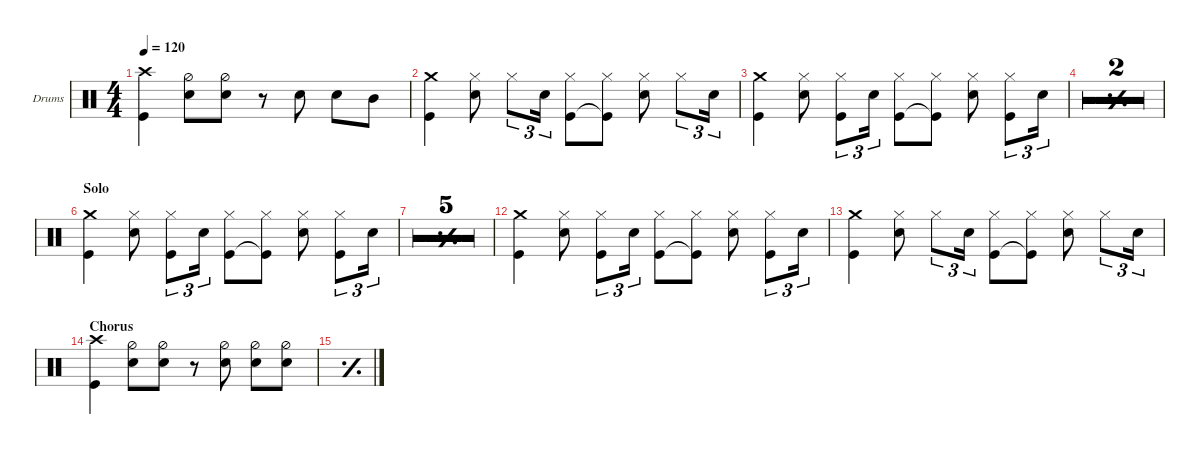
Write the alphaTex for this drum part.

\defaultSystemsLayout 4
\hideDynamics
\bracketExtendMode nobrackets
\firstSystemTrackNameOrientation horizontal
\otherSystemsTrackNameOrientation horizontal
\track ("Drums" "Drums") {multiBarRest instrument percussion}
\staff {score}
\articulation defaults
\ts (4 4)
\tempo 120
\clef neutral
\ks c
("Crash high (hit)" "Kick (hit)").4{dy mf} ("Snare (hit) 2" "Hi-Hat (half)").8 ("Snare (hit) 2" "Hi-Hat (half)").8 r.8 "Snare (hit) 2".8 "Snare (hit) 2".8 "Mid Tom (hit)".8 |
("Kick (hit)" "Crash medium (hit)").4 ("Snare (hit) 2" "Hi-Hat (closed)").8 "Hi-Hat (closed)".8{tu (3 2)} "Snare (hit) 2".16{tu (3 2)} ("Kick (hit)" "Hi-Hat (closed)").8 ("Kick (hit)"{t} "Hi-Hat (closed)").8 ("Snare (hit) 2" "Hi-Hat (closed)").8 "Hi-Hat (closed)".8{tu (3 2)} "Snare (hit) 2".16{tu (3 2)} |
("Kick (hit)" "Crash medium (hit)").4 ("Snare (hit) 2" "Hi-Hat (closed)").8 ("Hi-Hat (closed)" "Kick (hit)").8{tu (3 2)} "Snare (hit) 2".16{tu (3 2)} ("Kick (hit)" "Hi-Hat (closed)").8 ("Kick (hit)"{t} "Hi-Hat (closed)").8 ("Snare (hit) 2" "Hi-Hat (closed)").8 ("Hi-Hat (closed)" "Kick (hit)").8{tu (3 2)} "Snare (hit) 2".16{tu (3 2)} |
\simile simple
|
|
\section ("" "Solo")
\simile none
("Kick (hit)" "Crash medium (hit)").4 ("Snare (hit) 2" "Hi-Hat (closed)").8 ("Hi-Hat (closed)" "Kick (hit)").8{tu (3 2)} "Snare (hit) 2".16{tu (3 2)} ("Kick (hit)" "Hi-Hat (closed)").8 ("Kick (hit)"{t} "Hi-Hat (closed)").8 ("Snare (hit) 2" "Hi-Hat (closed)").8 ("Hi-Hat (closed)" "Kick (hit)").8{tu (3 2)} "Snare (hit) 2".16{tu (3 2)} |
\simile simple
|
\simile firstofdouble
|
\simile secondofdouble
|
\simile firstofdouble
|
\simile secondofdouble
|
\simile none
("Kick (hit)" "Crash medium (hit)").4 ("Snare (hit) 2" "Hi-Hat (closed)").8 ("Hi-Hat (closed)" "Kick (hit)").8{tu (3 2)} "Snare (hit) 2".16{tu (3 2)} ("Kick (hit)" "Hi-Hat (closed)").8 ("Kick (hit)"{t} "Hi-Hat (closed)").8 ("Snare (hit) 2" "Hi-Hat (closed)").8 ("Hi-Hat (closed)" "Kick (hit)").8{tu (3 2)} "Snare (hit) 2".16{tu (3 2)} |
("Kick (hit)" "Crash medium (hit)").4 ("Snare (hit) 2" "Hi-Hat (closed)").8 "Hi-Hat (closed)".8{tu (3 2)} "Snare (hit) 2".16{tu (3 2)} ("Kick (hit)" "Hi-Hat (closed)").8 ("Kick (hit)"{t} "Hi-Hat (closed)").8 ("Snare (hit) 2" "Hi-Hat (closed)").8 "Hi-Hat (closed)".8{tu (3 2)} "Snare (hit) 2".16{tu (3 2)} |
\section ("" "Chorus")
("Crash high (hit)" "Kick (hit)").4 ("Snare (hit) 2" "Hi-Hat (half)").8 ("Snare (hit) 2" "Hi-Hat (half)").8 r.8 ("Snare (hit) 2" "Hi-Hat (half)").8 ("Snare (hit) 2" "Hi-Hat (half)").8 ("Snare (hit) 2" "Hi-Hat (half)").8 |
\simile simple
